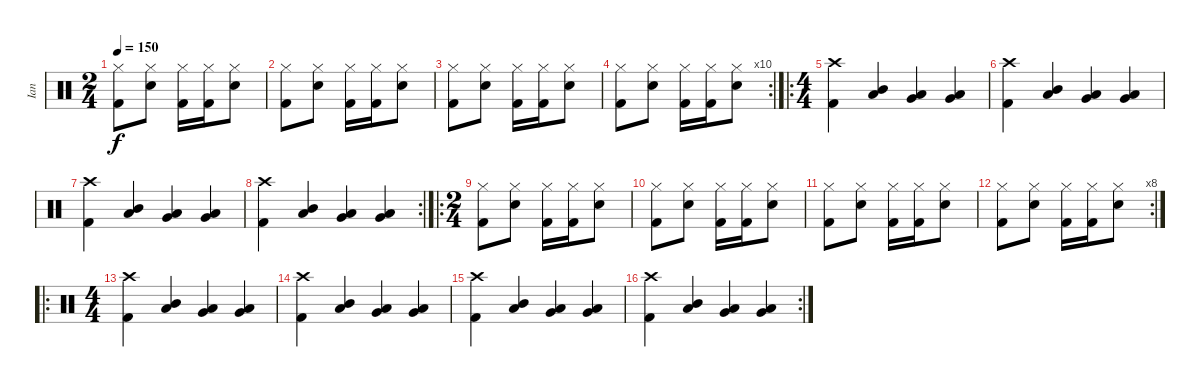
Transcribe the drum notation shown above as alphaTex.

\track ("Ian" "Ian") {instrument percussion}
\staff {score}
\articulation defaults
\ts (2 4)
\tempo 150
\clef neutral
\ks c
("Kick (hit) 2" "Hi-Hat (closed)").8{dy f} ("Snare (hit) 2" "Hi-Hat (closed)").8 ("Kick (hit) 2" "Hi-Hat (closed)").16 ("Kick (hit) 2" "Hi-Hat (closed)").16 ("Snare (hit) 2" "Hi-Hat (closed)").8 |
("Kick (hit) 2" "Hi-Hat (closed)").8 ("Snare (hit) 2" "Hi-Hat (closed)").8 ("Kick (hit) 2" "Hi-Hat (closed)").16 ("Kick (hit) 2" "Hi-Hat (closed)").16 ("Snare (hit) 2" "Hi-Hat (closed)").8 |
("Kick (hit) 2" "Hi-Hat (closed)").8 ("Snare (hit) 2" "Hi-Hat (closed)").8 ("Kick (hit) 2" "Hi-Hat (closed)").16 ("Kick (hit) 2" "Hi-Hat (closed)").16 ("Snare (hit) 2" "Hi-Hat (closed)").8 |
\rc 10
("Kick (hit) 2" "Hi-Hat (closed)").8 ("Snare (hit) 2" "Hi-Hat (closed)").8 ("Kick (hit) 2" "Hi-Hat (closed)").16 ("Kick (hit) 2" "Hi-Hat (closed)").16 ("Snare (hit) 2" "Hi-Hat (closed)").8 |
\ro
\ts (4 4)
("Crash high (hit)" "Kick (hit) 2").4 ("Mid Tom (hit)" "Low Tom (hit)").4 ("Low Tom (hit)" "Very Low Tom (hit)").4 ("Very Low Tom (hit)" "Low Floor Tom (hit)").4 |
("Crash high (hit)" "Kick (hit) 2").4 ("Mid Tom (hit)" "Low Tom (hit)").4 ("Low Tom (hit)" "Very Low Tom (hit)").4 ("Very Low Tom (hit)" "Low Floor Tom (hit)").4 |
("Crash high (hit)" "Kick (hit) 2").4 ("Mid Tom (hit)" "Low Tom (hit)").4 ("Low Tom (hit)" "Very Low Tom (hit)").4 ("Very Low Tom (hit)" "Low Floor Tom (hit)").4 |
\rc 2
("Crash high (hit)" "Kick (hit) 2").4 ("Mid Tom (hit)" "Low Tom (hit)").4 ("Low Tom (hit)" "Very Low Tom (hit)").4 ("Very Low Tom (hit)" "Low Floor Tom (hit)").4 |
\ro
\ts (2 4)
("Kick (hit) 2" "Hi-Hat (closed)").8 ("Snare (hit) 2" "Hi-Hat (closed)").8 ("Kick (hit) 2" "Hi-Hat (closed)").16 ("Kick (hit) 2" "Hi-Hat (closed)").16 ("Snare (hit) 2" "Hi-Hat (closed)").8 |
("Kick (hit) 2" "Hi-Hat (closed)").8 ("Snare (hit) 2" "Hi-Hat (closed)").8 ("Kick (hit) 2" "Hi-Hat (closed)").16 ("Kick (hit) 2" "Hi-Hat (closed)").16 ("Snare (hit) 2" "Hi-Hat (closed)").8 |
("Kick (hit) 2" "Hi-Hat (closed)").8 ("Snare (hit) 2" "Hi-Hat (closed)").8 ("Kick (hit) 2" "Hi-Hat (closed)").16 ("Kick (hit) 2" "Hi-Hat (closed)").16 ("Snare (hit) 2" "Hi-Hat (closed)").8 |
\rc 8
("Hi-Hat (closed)" "Kick (hit) 2").8 ("Hi-Hat (closed)" "Snare (hit) 2").8 ("Hi-Hat (closed)" "Kick (hit) 2").16 ("Hi-Hat (closed)" "Kick (hit) 2").16 ("Hi-Hat (closed)" "Snare (hit) 2").8 |
\ro
\ts (4 4)
("Crash high (hit)" "Kick (hit) 2").4 ("Mid Tom (hit)" "Low Tom (hit)").4 ("Low Tom (hit)" "Very Low Tom (hit)").4 ("Very Low Tom (hit)" "Low Floor Tom (hit)").4 |
("Crash high (hit)" "Kick (hit) 2").4 ("Mid Tom (hit)" "Low Tom (hit)").4 ("Low Tom (hit)" "Very Low Tom (hit)").4 ("Very Low Tom (hit)" "Low Floor Tom (hit)").4 |
("Crash high (hit)" "Kick (hit) 2").4 ("Mid Tom (hit)" "Low Tom (hit)").4 ("Low Tom (hit)" "Very Low Tom (hit)").4 ("Very Low Tom (hit)" "Low Floor Tom (hit)").4 |
\rc 2
("Crash high (hit)" "Kick (hit) 2").4 ("Mid Tom (hit)" "Low Tom (hit)").4 ("Low Tom (hit)" "Very Low Tom (hit)").4 ("Very Low Tom (hit)" "Low Floor Tom (hit)").4
